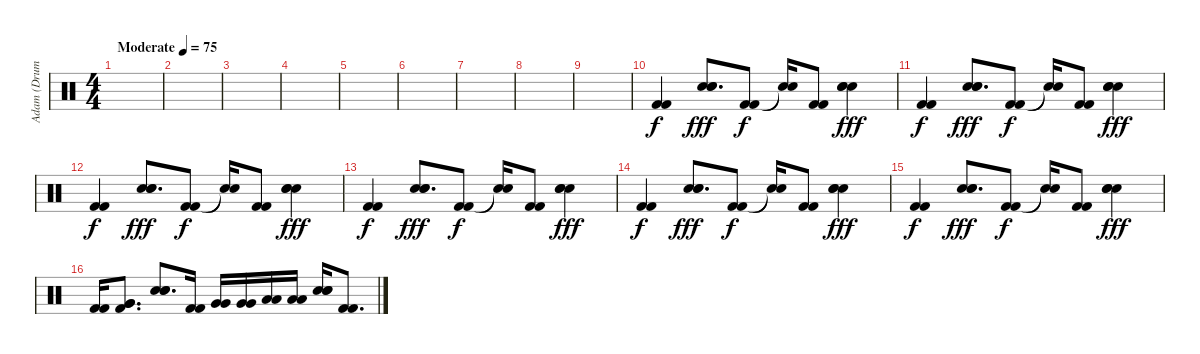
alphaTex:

\track ("Adam (Drums)" "Adam (Drum") {instrument percussion}
\staff {score}
\articulation defaults
\ts (4 4)
\tempo (75 "Moderate")
\clef neutral
\ks c
|
|
|
|
|
|
|
|
|
("Kick (hit) 2" "Kick (hit) 2").4 ("Hand Clap (hit)" "Hand Clap (hit)" "Hand Clap (hit)").8{d dy fff} ("Kick (hit) 2" "Kick (hit) 2").8{dy f} ("Snare (hit)"{t} "Snare (hit)"{t}).16 ("Kick (hit) 2" "Kick (hit) 2").8 ("Hand Clap (hit)" "Hand Clap (hit)" "Hand Clap (hit)").4{dy fff} |
("Kick (hit) 2" "Kick (hit) 2").4{dy f} ("Hand Clap (hit)" "Hand Clap (hit)" "Hand Clap (hit)").8{d dy fff} ("Kick (hit) 2" "Kick (hit) 2").8{dy f} ("Snare (hit)"{t} "Snare (hit)"{t}).16 ("Kick (hit) 2" "Kick (hit) 2").8 ("Hand Clap (hit)" "Hand Clap (hit)" "Hand Clap (hit)").4{dy fff} |
("Kick (hit) 2" "Kick (hit) 2").4{dy f} ("Hand Clap (hit)" "Hand Clap (hit)" "Hand Clap (hit)").8{d dy fff} ("Kick (hit) 2" "Kick (hit) 2").8{dy f} ("Snare (hit)"{t} "Snare (hit)"{t}).16 ("Kick (hit) 2" "Kick (hit) 2").8 ("Hand Clap (hit)" "Hand Clap (hit)" "Hand Clap (hit)").4{dy fff} |
("Kick (hit) 2" "Kick (hit) 2").4{dy f} ("Hand Clap (hit)" "Hand Clap (hit)" "Hand Clap (hit)").8{d dy fff} ("Kick (hit) 2" "Kick (hit) 2").8{dy f} ("Snare (hit)"{t} "Snare (hit)"{t}).16 ("Kick (hit) 2" "Kick (hit) 2").8 ("Hand Clap (hit)" "Hand Clap (hit)" "Hand Clap (hit)").4{dy fff} |
("Kick (hit) 2" "Kick (hit) 2").4{dy f} ("Hand Clap (hit)" "Hand Clap (hit)" "Hand Clap (hit)").8{d dy fff} ("Kick (hit) 2" "Kick (hit) 2").8{dy f} ("Snare (hit)"{t} "Snare (hit)"{t}).16 ("Kick (hit) 2" "Kick (hit) 2").8 ("Hand Clap (hit)" "Hand Clap (hit)" "Hand Clap (hit)").4{dy fff} |
("Kick (hit) 2" "Kick (hit) 2").4{dy f} ("Hand Clap (hit)" "Hand Clap (hit)" "Hand Clap (hit)").8{d dy fff} ("Kick (hit) 2" "Kick (hit) 2").8{dy f} ("Snare (hit)"{t} "Snare (hit)"{t}).16 ("Kick (hit) 2" "Kick (hit) 2").8 ("Hand Clap (hit)" "Hand Clap (hit)" "Hand Clap (hit)").4{dy fff} |
("Kick (hit) 2" "Kick (hit) 2").16 ("Very Low Tom (hit)" "Very Low Tom (hit)" "Kick (hit) 2").8{d} ("Hand Clap (hit)" "Hand Clap (hit)" "Hand Clap (hit)").8{d} ("Kick (hit) 2" "Kick (hit) 2").16 ("Very Low Tom (hit)" "Very Low Tom (hit)").16 ("Very Low Tom (hit)" "Very Low Tom (hit)").16 ("Low Floor Tom (hit)" "Low Floor Tom (hit)").16 ("Low Floor Tom (hit)" "Low Floor Tom (hit)").16 ("Hand Clap (hit)" "Hand Clap (hit)" "Hand Clap (hit)").16 ("Kick (hit) 2" "Kick (hit) 2").8{d}
